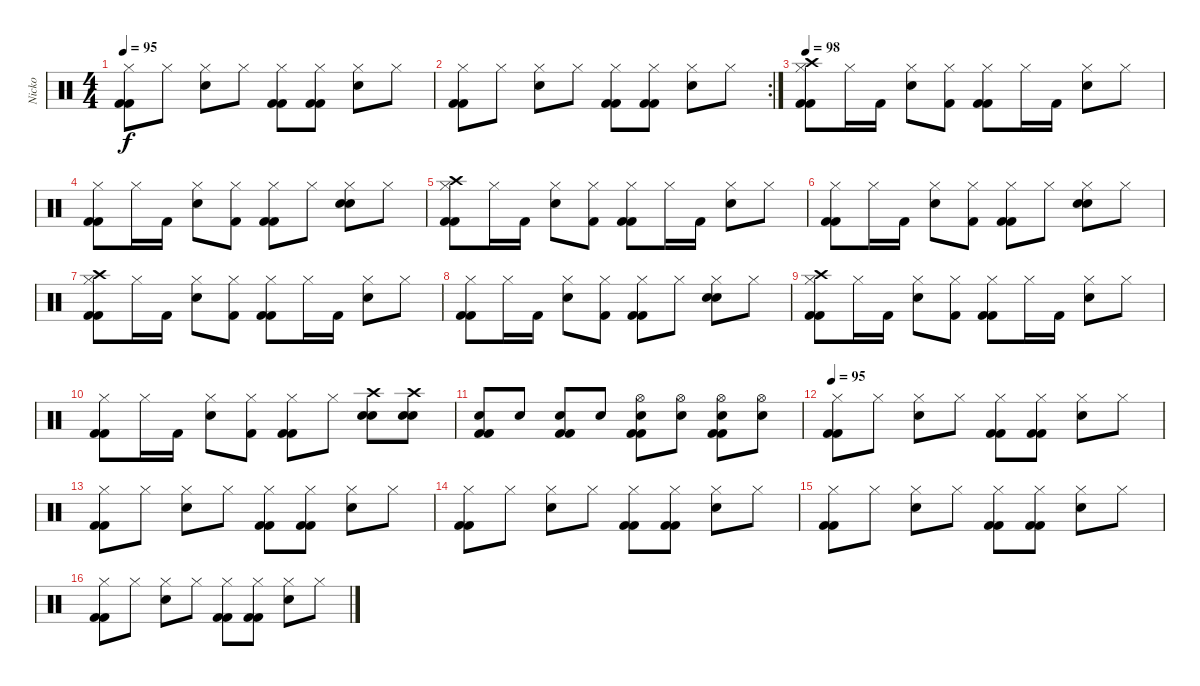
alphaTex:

\track ("Nicko " "Nicko ") {instrument percussion}
\staff {score}
\articulation defaults
\ts (4 4)
\tempo 95
\clef neutral
\ks c
("Hi-Hat (closed)" "Kick (hit) 2" "Kick (hit) 2").8{dy f} "Hi-Hat (closed)".8 ("Hi-Hat (closed)" "Snare (hit) 2").8 "Hi-Hat (closed)".8 ("Hi-Hat (closed)" "Kick (hit) 2" "Kick (hit) 2").8 ("Hi-Hat (closed)" "Kick (hit) 2" "Kick (hit) 2").8 ("Hi-Hat (closed)" "Snare (hit) 2").8 "Hi-Hat (closed)".8 |
\rc 2
("Hi-Hat (closed)" "Kick (hit) 2" "Kick (hit) 2").8 "Hi-Hat (closed)".8 ("Hi-Hat (closed)" "Snare (hit) 2").8 "Hi-Hat (closed)".8 ("Hi-Hat (closed)" "Kick (hit) 2" "Kick (hit) 2").8 ("Hi-Hat (closed)" "Kick (hit) 2" "Kick (hit) 2").8 ("Hi-Hat (closed)" "Snare (hit) 2").8 "Hi-Hat (closed)".8 |
\tempo 98
("Hi-Hat (closed)" "Kick (hit) 2" "Kick (hit) 2" "Crash high (hit)").8 "Hi-Hat (closed)".16 "Kick (hit) 2".16 ("Hi-Hat (closed)" "Snare (hit) 2").8 ("Hi-Hat (closed)" "Kick (hit) 2").8 ("Hi-Hat (closed)" "Kick (hit) 2" "Kick (hit) 2").8 "Hi-Hat (closed)".16 "Kick (hit) 2".16 ("Hi-Hat (closed)" "Snare (hit) 2").8 "Hi-Hat (closed)".8 |
("Hi-Hat (closed)" "Kick (hit) 2" "Kick (hit) 2").8 "Hi-Hat (closed)".16 "Kick (hit) 2".16 ("Hi-Hat (closed)" "Snare (hit) 2").8 ("Hi-Hat (closed)" "Kick (hit) 2").8 ("Hi-Hat (closed)" "Kick (hit) 2" "Kick (hit) 2").8 "Hi-Hat (closed)".8 ("Hi-Hat (closed)" "Snare (hit) 2" "Snare (hit) 2").8 "Hi-Hat (closed)".8 |
("Hi-Hat (closed)" "Kick (hit) 2" "Kick (hit) 2" "Crash high (hit)").8 "Hi-Hat (closed)".16 "Kick (hit) 2".16 ("Hi-Hat (closed)" "Snare (hit) 2").8 ("Hi-Hat (closed)" "Kick (hit) 2").8 ("Hi-Hat (closed)" "Kick (hit) 2" "Kick (hit) 2").8 "Hi-Hat (closed)".16 "Kick (hit) 2".16 ("Hi-Hat (closed)" "Snare (hit) 2").8 "Hi-Hat (closed)".8 |
("Hi-Hat (closed)" "Kick (hit) 2" "Kick (hit) 2").8 "Hi-Hat (closed)".16 "Kick (hit) 2".16 ("Hi-Hat (closed)" "Snare (hit) 2").8 ("Hi-Hat (closed)" "Kick (hit) 2").8 ("Hi-Hat (closed)" "Kick (hit) 2" "Kick (hit) 2").8 "Hi-Hat (closed)".8 ("Hi-Hat (closed)" "Snare (hit) 2" "Snare (hit) 2").8 "Hi-Hat (closed)".8 |
("Hi-Hat (closed)" "Kick (hit) 2" "Kick (hit) 2" "Crash high (hit)").8 "Hi-Hat (closed)".16 "Kick (hit) 2".16 ("Hi-Hat (closed)" "Snare (hit) 2").8 ("Hi-Hat (closed)" "Kick (hit) 2").8 ("Hi-Hat (closed)" "Kick (hit) 2" "Kick (hit) 2").8 "Hi-Hat (closed)".16 "Kick (hit) 2".16 ("Hi-Hat (closed)" "Snare (hit) 2").8 "Hi-Hat (closed)".8 |
("Hi-Hat (closed)" "Kick (hit) 2" "Kick (hit) 2").8 "Hi-Hat (closed)".16 "Kick (hit) 2".16 ("Hi-Hat (closed)" "Snare (hit) 2").8 ("Hi-Hat (closed)" "Kick (hit) 2").8 ("Hi-Hat (closed)" "Kick (hit) 2" "Kick (hit) 2").8 "Hi-Hat (closed)".8 ("Hi-Hat (closed)" "Snare (hit) 2" "Snare (hit) 2").8 "Hi-Hat (closed)".8 |
("Hi-Hat (closed)" "Kick (hit) 2" "Kick (hit) 2" "Crash high (hit)").8 "Hi-Hat (closed)".16 "Kick (hit) 2".16 ("Hi-Hat (closed)" "Snare (hit) 2").8 ("Hi-Hat (closed)" "Kick (hit) 2").8 ("Hi-Hat (closed)" "Kick (hit) 2" "Kick (hit) 2").8 "Hi-Hat (closed)".16 "Kick (hit) 2".16 ("Hi-Hat (closed)" "Snare (hit) 2").8 "Hi-Hat (closed)".8 |
("Hi-Hat (closed)" "Kick (hit) 2" "Kick (hit) 2").8 "Hi-Hat (closed)".16 "Kick (hit) 2".16 ("Hi-Hat (closed)" "Snare (hit) 2").8 ("Hi-Hat (closed)" "Kick (hit) 2").8 ("Hi-Hat (closed)" "Kick (hit) 2" "Kick (hit) 2").8 "Hi-Hat (closed)".8 ("Snare (hit) 2" "Snare (hit) 2" "Crash high (hit)").8 ("Snare (hit) 2" "Snare (hit) 2" "Crash high (hit)").8 |
("Snare (hit) 2" "Kick (hit) 2" "Kick (hit) 2").8 "Snare (hit) 2".8 ("Snare (hit) 2" "Kick (hit) 2" "Kick (hit) 2").8 "Snare (hit) 2".8 ("Snare (hit) 2" "Kick (hit) 2" "Kick (hit) 2" "Hi-Hat (open)").8 ("Snare (hit) 2" "Hi-Hat (open)").8 ("Snare (hit) 2" "Kick (hit) 2" "Kick (hit) 2" "Hi-Hat (open)").8 ("Snare (hit) 2" "Hi-Hat (open)").8 |
\tempo 95
("Hi-Hat (closed)" "Kick (hit) 2" "Kick (hit) 2").8 "Hi-Hat (closed)".8 ("Hi-Hat (closed)" "Snare (hit) 2").8 "Hi-Hat (closed)".8 ("Hi-Hat (closed)" "Kick (hit) 2" "Kick (hit) 2").8 ("Hi-Hat (closed)" "Kick (hit) 2" "Kick (hit) 2").8 ("Hi-Hat (closed)" "Snare (hit) 2").8 "Hi-Hat (closed)".8 |
("Hi-Hat (closed)" "Kick (hit) 2" "Kick (hit) 2").8 "Hi-Hat (closed)".8 ("Hi-Hat (closed)" "Snare (hit) 2").8 "Hi-Hat (closed)".8 ("Hi-Hat (closed)" "Kick (hit) 2" "Kick (hit) 2").8 ("Hi-Hat (closed)" "Kick (hit) 2" "Kick (hit) 2").8 ("Hi-Hat (closed)" "Snare (hit) 2").8 "Hi-Hat (closed)".8 |
("Hi-Hat (closed)" "Kick (hit) 2" "Kick (hit) 2").8 "Hi-Hat (closed)".8 ("Hi-Hat (closed)" "Snare (hit) 2").8 "Hi-Hat (closed)".8 ("Hi-Hat (closed)" "Kick (hit) 2" "Kick (hit) 2").8 ("Hi-Hat (closed)" "Kick (hit) 2" "Kick (hit) 2").8 ("Hi-Hat (closed)" "Snare (hit) 2").8 "Hi-Hat (closed)".8 |
("Hi-Hat (closed)" "Kick (hit) 2" "Kick (hit) 2").8 "Hi-Hat (closed)".8 ("Hi-Hat (closed)" "Snare (hit) 2").8 "Hi-Hat (closed)".8 ("Hi-Hat (closed)" "Kick (hit) 2" "Kick (hit) 2").8 ("Hi-Hat (closed)" "Kick (hit) 2" "Kick (hit) 2").8 ("Hi-Hat (closed)" "Snare (hit) 2").8 "Hi-Hat (closed)".8 |
("Hi-Hat (closed)" "Kick (hit) 2" "Kick (hit) 2").8 "Hi-Hat (closed)".8 ("Hi-Hat (closed)" "Snare (hit) 2").8 "Hi-Hat (closed)".8 ("Hi-Hat (closed)" "Kick (hit) 2" "Kick (hit) 2").8 ("Hi-Hat (closed)" "Kick (hit) 2" "Kick (hit) 2").8 ("Hi-Hat (closed)" "Snare (hit) 2").8 "Hi-Hat (closed)".8
